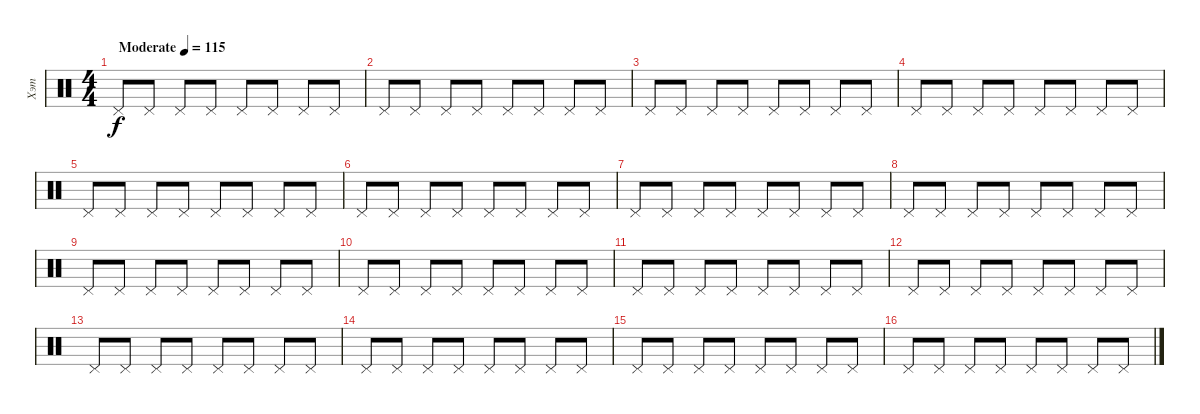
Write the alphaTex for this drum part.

\track ("Хэт" "Хэт") {instrument percussion}
\staff {score}
\articulation defaults
\ts (4 4)
\tempo (115 "Moderate")
\clef neutral
\ks c "Pedal Hi-Hat (hit)".8{dy f} "Pedal Hi-Hat (hit)".8 "Pedal Hi-Hat (hit)".8 "Pedal Hi-Hat (hit)".8 "Pedal Hi-Hat (hit)".8 "Pedal Hi-Hat (hit)".8 "Pedal Hi-Hat (hit)".8 "Pedal Hi-Hat (hit)".8
|
"Pedal Hi-Hat (hit)".8 "Pedal Hi-Hat (hit)".8 "Pedal Hi-Hat (hit)".8 "Pedal Hi-Hat (hit)".8 "Pedal Hi-Hat (hit)".8 "Pedal Hi-Hat (hit)".8 "Pedal Hi-Hat (hit)".8 "Pedal Hi-Hat (hit)".8 |
"Pedal Hi-Hat (hit)".8 "Pedal Hi-Hat (hit)".8 "Pedal Hi-Hat (hit)".8 "Pedal Hi-Hat (hit)".8 "Pedal Hi-Hat (hit)".8 "Pedal Hi-Hat (hit)".8 "Pedal Hi-Hat (hit)".8 "Pedal Hi-Hat (hit)".8 |
"Pedal Hi-Hat (hit)".8 "Pedal Hi-Hat (hit)".8 "Pedal Hi-Hat (hit)".8 "Pedal Hi-Hat (hit)".8 "Pedal Hi-Hat (hit)".8 "Pedal Hi-Hat (hit)".8 "Pedal Hi-Hat (hit)".8 "Pedal Hi-Hat (hit)".8 |
"Pedal Hi-Hat (hit)".8 "Pedal Hi-Hat (hit)".8 "Pedal Hi-Hat (hit)".8 "Pedal Hi-Hat (hit)".8 "Pedal Hi-Hat (hit)".8 "Pedal Hi-Hat (hit)".8 "Pedal Hi-Hat (hit)".8 "Pedal Hi-Hat (hit)".8 |
"Pedal Hi-Hat (hit)".8 "Pedal Hi-Hat (hit)".8 "Pedal Hi-Hat (hit)".8 "Pedal Hi-Hat (hit)".8 "Pedal Hi-Hat (hit)".8 "Pedal Hi-Hat (hit)".8 "Pedal Hi-Hat (hit)".8 "Pedal Hi-Hat (hit)".8 |
"Pedal Hi-Hat (hit)".8 "Pedal Hi-Hat (hit)".8 "Pedal Hi-Hat (hit)".8 "Pedal Hi-Hat (hit)".8 "Pedal Hi-Hat (hit)".8 "Pedal Hi-Hat (hit)".8 "Pedal Hi-Hat (hit)".8 "Pedal Hi-Hat (hit)".8 |
"Pedal Hi-Hat (hit)".8 "Pedal Hi-Hat (hit)".8 "Pedal Hi-Hat (hit)".8 "Pedal Hi-Hat (hit)".8 "Pedal Hi-Hat (hit)".8 "Pedal Hi-Hat (hit)".8 "Pedal Hi-Hat (hit)".8 "Pedal Hi-Hat (hit)".8 |
"Pedal Hi-Hat (hit)".8 "Pedal Hi-Hat (hit)".8 "Pedal Hi-Hat (hit)".8 "Pedal Hi-Hat (hit)".8 "Pedal Hi-Hat (hit)".8 "Pedal Hi-Hat (hit)".8 "Pedal Hi-Hat (hit)".8 "Pedal Hi-Hat (hit)".8 |
"Pedal Hi-Hat (hit)".8 "Pedal Hi-Hat (hit)".8 "Pedal Hi-Hat (hit)".8 "Pedal Hi-Hat (hit)".8 "Pedal Hi-Hat (hit)".8 "Pedal Hi-Hat (hit)".8 "Pedal Hi-Hat (hit)".8 "Pedal Hi-Hat (hit)".8 |
"Pedal Hi-Hat (hit)".8 "Pedal Hi-Hat (hit)".8 "Pedal Hi-Hat (hit)".8 "Pedal Hi-Hat (hit)".8 "Pedal Hi-Hat (hit)".8 "Pedal Hi-Hat (hit)".8 "Pedal Hi-Hat (hit)".8 "Pedal Hi-Hat (hit)".8 |
"Pedal Hi-Hat (hit)".8 "Pedal Hi-Hat (hit)".8 "Pedal Hi-Hat (hit)".8 "Pedal Hi-Hat (hit)".8 "Pedal Hi-Hat (hit)".8 "Pedal Hi-Hat (hit)".8 "Pedal Hi-Hat (hit)".8 "Pedal Hi-Hat (hit)".8 |
"Pedal Hi-Hat (hit)".8 "Pedal Hi-Hat (hit)".8 "Pedal Hi-Hat (hit)".8 "Pedal Hi-Hat (hit)".8 "Pedal Hi-Hat (hit)".8 "Pedal Hi-Hat (hit)".8 "Pedal Hi-Hat (hit)".8 "Pedal Hi-Hat (hit)".8 |
"Pedal Hi-Hat (hit)".8 "Pedal Hi-Hat (hit)".8 "Pedal Hi-Hat (hit)".8 "Pedal Hi-Hat (hit)".8 "Pedal Hi-Hat (hit)".8 "Pedal Hi-Hat (hit)".8 "Pedal Hi-Hat (hit)".8 "Pedal Hi-Hat (hit)".8 |
"Pedal Hi-Hat (hit)".8 "Pedal Hi-Hat (hit)".8 "Pedal Hi-Hat (hit)".8 "Pedal Hi-Hat (hit)".8 "Pedal Hi-Hat (hit)".8 "Pedal Hi-Hat (hit)".8 "Pedal Hi-Hat (hit)".8 "Pedal Hi-Hat (hit)".8 |
"Pedal Hi-Hat (hit)".8 "Pedal Hi-Hat (hit)".8 "Pedal Hi-Hat (hit)".8 "Pedal Hi-Hat (hit)".8 "Pedal Hi-Hat (hit)".8 "Pedal Hi-Hat (hit)".8 "Pedal Hi-Hat (hit)".8 "Pedal Hi-Hat (hit)".8
